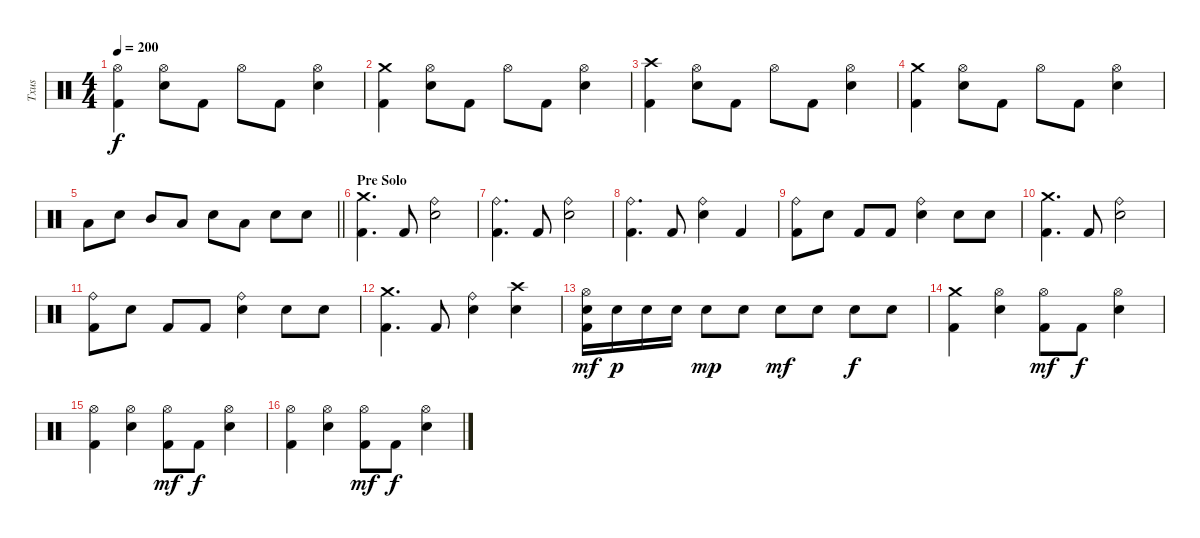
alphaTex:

\track ("Txus" "Txus") {instrument percussion}
\staff {score}
\articulation defaults
\ts (4 4)
\tempo 200
\clef neutral
\ks c
("Hi-Hat (open)" "Kick (hit) 2").4{dy f} ("Hi-Hat (open)" "Snare (hit) 2").8 "Kick (hit) 2".8 "Hi-Hat (open)".8 "Kick (hit) 2".8 ("Hi-Hat (open)" "Snare (hit) 2").4 |
("Crash medium (hit)" "Kick (hit) 2").4 ("Hi-Hat (open)" "Snare (hit) 2").8 "Kick (hit) 2".8 "Hi-Hat (open)".8 "Kick (hit) 2".8 ("Hi-Hat (open)" "Snare (hit) 2").4 |
("Crash high (hit)" "Kick (hit) 2").4 ("Hi-Hat (open)" "Snare (hit) 2").8 "Kick (hit) 2".8 "Hi-Hat (open)".8 "Kick (hit) 2".8 ("Hi-Hat (open)" "Snare (hit) 2").4 |
("Crash medium (hit)" "Kick (hit) 2").4 ("Hi-Hat (open)" "Snare (hit) 2").8 "Kick (hit) 2".8 "Hi-Hat (open)".8 "Kick (hit) 2".8 ("Hi-Hat (open)" "Snare (hit) 2").4 |
\barLineRight lightlight "Low Tom (hit)".8 "Snare (hit) 2".8 "Mid Tom (hit)".8 "Low Tom (hit)".8 "Snare (hit) 2".8 "Low Tom (hit)".8 "Snare (hit) 2".8 "Snare (hit) 2".8
|
\section ("" "Pre Solo")
("Crash medium (hit)" "Kick (hit) 2").4{d} "Kick (hit) 2".8 ("Ride (bell)" "Snare (hit) 2").2 |
("Ride (bell)" "Kick (hit) 2").4{d} "Kick (hit) 2".8 ("Ride (bell)" "Snare (hit) 2").2 |
("Ride (bell)" "Kick (hit) 2").4{d} "Kick (hit) 2".8 ("Ride (bell)" "Snare (hit) 2").4 "Kick (hit) 2".4 |
("Ride (bell)" "Kick (hit) 2").8 "Snare (hit) 2".8 "Kick (hit) 2".8 "Kick (hit) 2".8 ("Ride (bell)" "Snare (hit) 2").4 "Snare (hit) 2".8 "Snare (hit) 2".8 |
("Crash medium (hit)" "Kick (hit) 2").4{d} "Kick (hit) 2".8 ("Ride (bell)" "Snare (hit) 2").2 |
("Ride (bell)" "Kick (hit) 2").8 "Snare (hit) 2".8 "Kick (hit) 2".8 "Kick (hit) 2".8 ("Ride (bell)" "Snare (hit) 2").4 "Snare (hit) 2".8 "Snare (hit) 2".8 |
("Crash medium (hit)" "Kick (hit) 2").4{d} "Kick (hit) 2".8 ("Ride (bell)" "Snare (hit) 2").4 ("Crash high (hit)" "Snare (hit) 2").4 |
("Hi-Hat (open)" "Snare (hit) 2" "Kick (hit) 2").16{dy mf} "Snare (hit) 2".16{dy p} "Snare (hit) 2".16 "Snare (hit) 2".16 "Snare (hit) 2".8{dy mp} "Snare (hit) 2".8 "Snare (hit) 2".8{dy mf} "Snare (hit) 2".8 "Snare (hit) 2".8{dy f} "Snare (hit) 2".8 |
("Crash medium (hit)" "Kick (hit) 2").4 ("Hi-Hat (open)" "Snare (hit) 2").4 ("Hi-Hat (open)" "Kick (hit) 2").8{dy mf} "Kick (hit) 2".8{dy f} ("Hi-Hat (open)" "Snare (hit) 2").4 |
("Hi-Hat (open)" "Kick (hit) 2").4 ("Hi-Hat (open)" "Snare (hit) 2").4 ("Hi-Hat (open)" "Kick (hit) 2").8{dy mf} "Kick (hit) 2".8{dy f} ("Hi-Hat (open)" "Snare (hit) 2").4 |
("Hi-Hat (open)" "Kick (hit) 2").4 ("Hi-Hat (open)" "Snare (hit) 2").4 ("Hi-Hat (open)" "Kick (hit) 2").8{dy mf} "Kick (hit) 2".8{dy f} ("Hi-Hat (open)" "Snare (hit) 2").4
